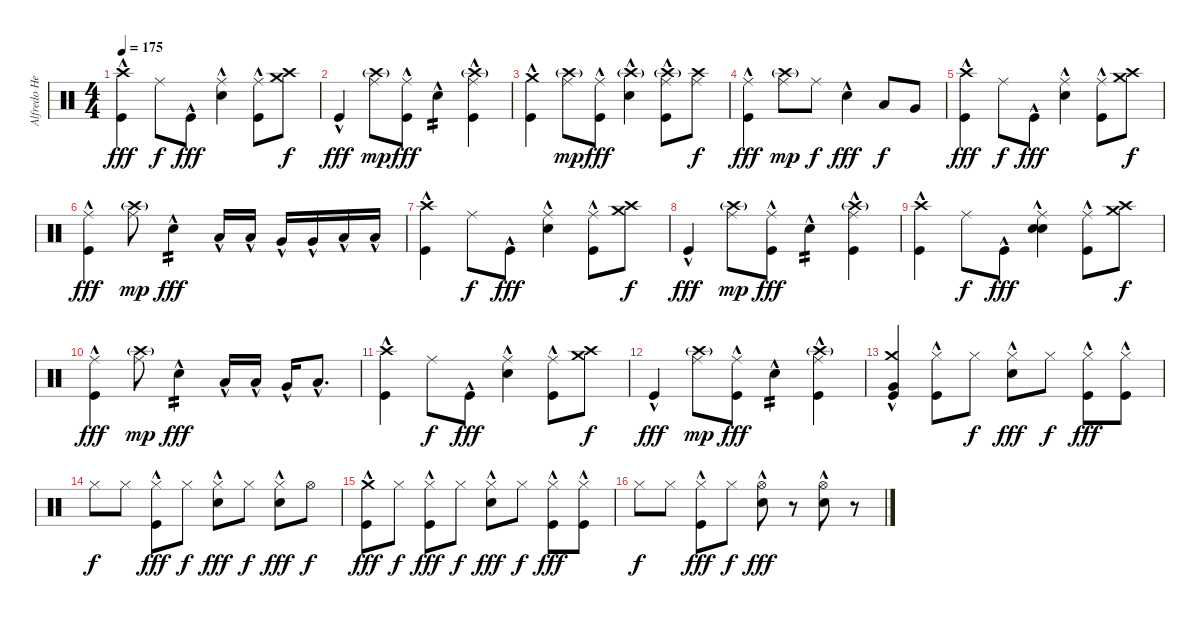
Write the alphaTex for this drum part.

\track ("Alfredo Hernández - Drums" "Alfredo He") {instrument percussion}
\staff {score}
\articulation defaults
\ts (4 4)
\tempo 175
\clef neutral
\ks c
("Crash high (hit)" "Kick (hit)"{hac}).4{dy fff} "Ride (middle)".8{dy f} "Kick (hit)"{hac}.8{dy fff} ("Ride (middle)" "Snare (hit) 2"{hac}).4 ("Ride (middle)" "Kick (hit)"{hac}).8 ("Crash high (hit)" "Crash medium (hit)").8{dy f} |
"Kick (hit)"{hac}.4{dy fff} ("Crash high (hit)"{g} "Ride (middle)").8{dy mp} ("Ride (middle)" "Kick (hit)"{hac}).8{dy fff} "Snare (hit) 2"{hac}.4{tp 2} ("Crash high (hit)"{g} "Ride (middle)" "Kick (hit)"{hac}).4 |
("Crash medium (hit)" "Kick (hit)"{hac}).4 ("Crash high (hit)"{g} "Ride (middle)").8{dy mp} ("Ride (middle)" "Kick (hit)"{hac}).8{dy fff} ("Crash high (hit)"{g} "Snare (hit) 2"{hac}).4 ("Crash high (hit)"{g} "Ride (middle)" "Kick (hit)"{hac}).8 ("Crash high (hit)" "Ride (middle)").8{dy f} |
("Ride (middle)" "Kick (hit)"{hac}).4{dy fff} ("Crash high (hit)"{g} "Ride (middle)").8{dy mp} "Ride (middle)".8{dy f} "Snare (hit) 2"{hac}.4{dy fff} "Low Tom (hit)".8{dy f} "Very Low Tom (hit)".8 |
("Crash high (hit)" "Kick (hit)"{hac}).4{dy fff} "Ride (middle)".8{dy f} "Kick (hit)"{hac}.8{dy fff} ("Ride (middle)" "Snare (hit) 2"{hac}).4 ("Ride (middle)" "Kick (hit)"{hac}).8 ("Crash high (hit)" "Crash medium (hit)").8{dy f} |
("Ride (middle)" "Kick (hit)"{hac}).4{dy fff} ("Crash high (hit)"{g} "Ride (middle)").8{dy mp} "Snare (hit) 2"{hac}.4{tp 2 dy fff} "Low Tom (hit)"{hac}.16 "Low Tom (hit)"{hac}.16 "Very Low Tom (hit)"{hac}.16 "Very Low Tom (hit)"{hac}.16 "Low Floor Tom (hit)"{hac}.16 "Low Floor Tom (hit)"{hac}.16 |
("Crash high (hit)" "Kick (hit)"{hac}).4 "Ride (middle)".8{dy f} "Kick (hit)"{hac}.8{dy fff} ("Ride (middle)" "Snare (hit) 2"{hac}).4 ("Ride (middle)" "Kick (hit)"{hac}).8 ("Crash high (hit)" "Crash medium (hit)").8{dy f} |
"Kick (hit)"{hac}.4{dy fff} ("Crash high (hit)"{g} "Ride (middle)").8{dy mp} ("Ride (middle)" "Kick (hit)"{hac}).8{dy fff} "Snare (hit) 2"{hac}.4{tp 2} ("Crash high (hit)"{g} "Ride (middle)" "Kick (hit)"{hac}).4 |
("Crash high (hit)" "Kick (hit)"{hac}).4 "Ride (middle)".8{dy f} "Kick (hit)"{hac}.8{dy fff} ("Ride (middle)" "Snare (hit) 2"{hac} "Snare (hit) 2"{hac}).4 ("Ride (middle)" "Kick (hit)"{hac}).8 ("Crash high (hit)" "Crash medium (hit)").8{dy f} |
("Ride (middle)" "Kick (hit)"{hac}).4{dy fff} ("Crash high (hit)"{g} "Ride (middle)").8{dy mp} "Snare (hit) 2"{hac}.4{tp 2 dy fff} "Low Tom (hit)"{hac}.16 "Low Tom (hit)"{hac}.16 "Very Low Tom (hit)"{hac}.16 "Low Floor Tom (hit)"{hac}.8{d} |
("Crash high (hit)" "Kick (hit)"{hac}).4 "Ride (middle)".8{dy f} "Kick (hit)"{hac}.8{dy fff} ("Ride (middle)" "Snare (hit) 2"{hac}).4 ("Ride (middle)" "Kick (hit)"{hac}).8 ("Crash high (hit)" "Crash medium (hit)").8{dy f} |
"Kick (hit)"{hac}.4{dy fff} ("Crash high (hit)"{g} "Ride (middle)").8{dy mp} ("Ride (middle)" "Kick (hit)"{hac}).8{dy fff} "Snare (hit) 2"{hac}.4{tp 2} ("Crash high (hit)"{g} "Ride (middle)" "Kick (hit)"{hac}).4 |
("Crash medium (hit)" "Very Low Tom (hit)"{hac} "Kick (hit)"{hac}).4 ("Hi-Hat (closed)" "Kick (hit)"{hac}).8 "Hi-Hat (closed)".8{dy f} ("Hi-Hat (closed)" "Snare (hit) 2"{hac}).8{dy fff} "Hi-Hat (closed)".8{dy f} ("Hi-Hat (closed)" "Kick (hit)"{hac}).8{dy fff} ("Hi-Hat (closed)" "Kick (hit)"{hac}).8 |
"Hi-Hat (closed)".8{dy f} "Hi-Hat (closed)".8 ("Hi-Hat (closed)" "Kick (hit)"{hac}).8{dy fff} "Hi-Hat (closed)".8{dy f} ("Hi-Hat (closed)" "Snare (hit) 2"{hac}).8{dy fff} "Hi-Hat (closed)".8{dy f} ("Hi-Hat (closed)" "Snare (hit) 2"{hac}).8{dy fff} "Hi-Hat (open)".8{dy f} |
("Crash medium (hit)" "Kick (hit)"{hac}).8{dy fff} "Hi-Hat (closed)".8{dy f} ("Hi-Hat (closed)" "Kick (hit)"{hac}).8{dy fff} "Hi-Hat (closed)".8{dy f} ("Hi-Hat (closed)" "Snare (hit) 2"{hac}).8{dy fff} "Hi-Hat (closed)".8{dy f} ("Hi-Hat (closed)" "Kick (hit)"{hac}).8{dy fff} ("Hi-Hat (closed)" "Kick (hit)"{hac}).8 |
"Hi-Hat (closed)".8{dy f} "Hi-Hat (closed)".8 ("Hi-Hat (closed)" "Kick (hit)"{hac}).8{dy fff} "Hi-Hat (closed)".8{dy f} ("Hi-Hat (open)" "Snare (hit) 2"{hac}).8{dy fff} r.8 ("Hi-Hat (open)" "Snare (hit) 2"{hac}).8 r.8
